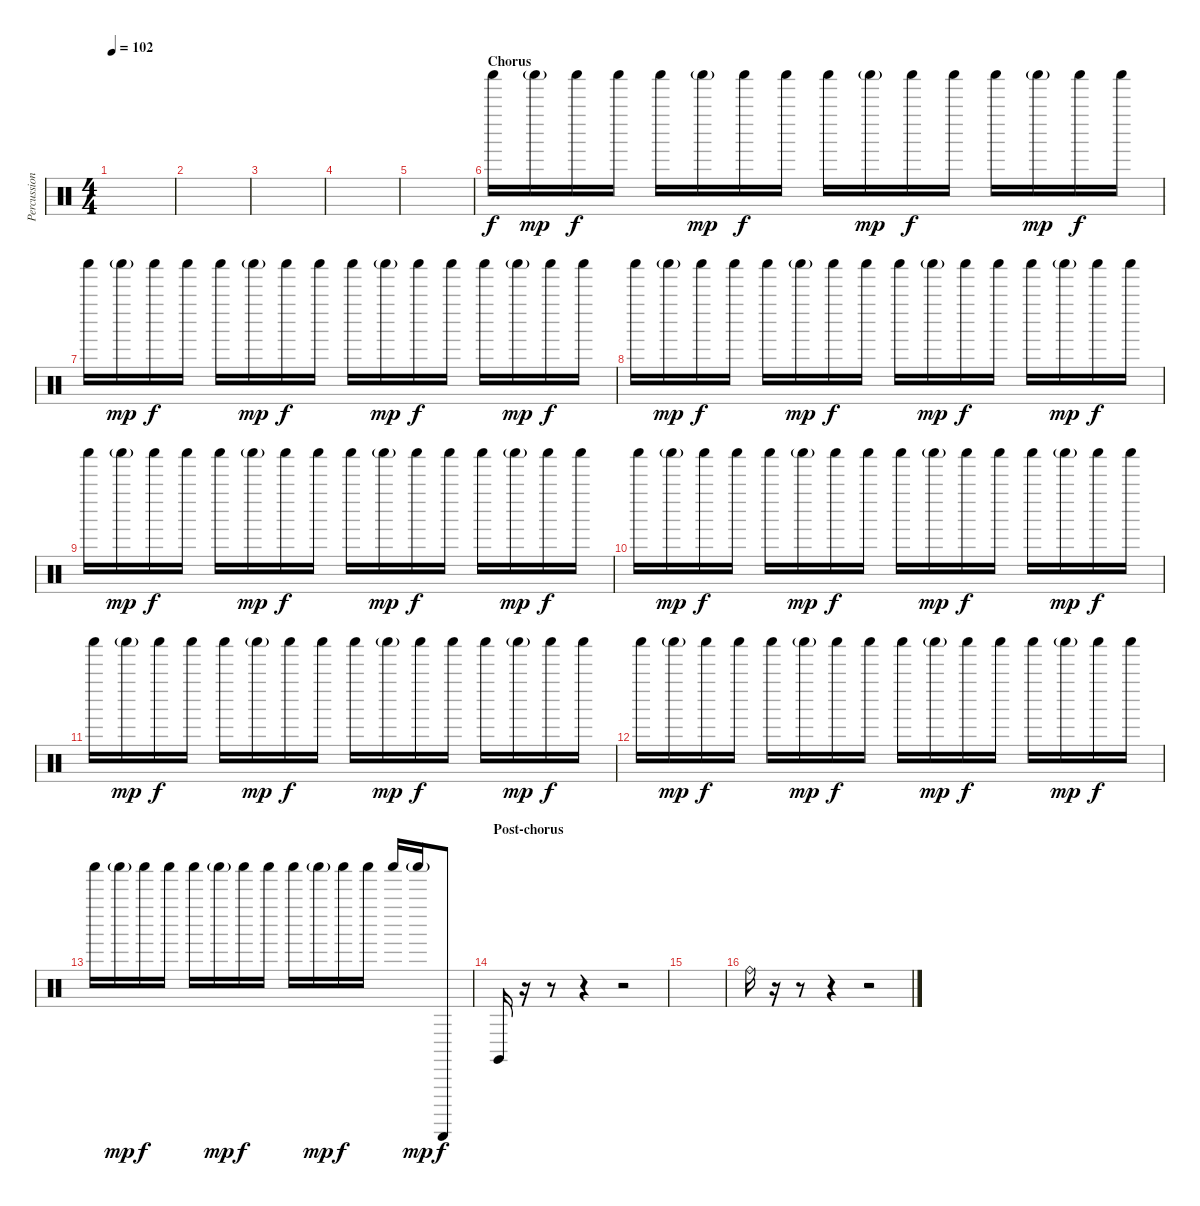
\track ("Percussion" "Percussion") {instrument percussion}
\staff {score}
\articulation defaults
\ts (4 4)
\tempo 102
\clef neutral
\ks c
|
|
|
|
|
\section ("" "Chorus")
"Shaker (hit)".16 "Shaker (hit)"{g}.16{dy mp} "Shaker (hit)".16{dy f} "Shaker (hit)".16 "Shaker (hit)".16 "Shaker (hit)"{g}.16{dy mp} "Shaker (hit)".16{dy f} "Shaker (hit)".16 "Shaker (hit)".16 "Shaker (hit)"{g}.16{dy mp} "Shaker (hit)".16{dy f} "Shaker (hit)".16 "Shaker (hit)".16 "Shaker (hit)"{g}.16{dy mp} "Shaker (hit)".16{dy f} "Shaker (hit)".16 |
"Shaker (hit)".16 "Shaker (hit)"{g}.16{dy mp} "Shaker (hit)".16{dy f} "Shaker (hit)".16 "Shaker (hit)".16 "Shaker (hit)"{g}.16{dy mp} "Shaker (hit)".16{dy f} "Shaker (hit)".16 "Shaker (hit)".16 "Shaker (hit)"{g}.16{dy mp} "Shaker (hit)".16{dy f} "Shaker (hit)".16 "Shaker (hit)".16 "Shaker (hit)"{g}.16{dy mp} "Shaker (hit)".16{dy f} "Shaker (hit)".16 |
"Shaker (hit)".16 "Shaker (hit)"{g}.16{dy mp} "Shaker (hit)".16{dy f} "Shaker (hit)".16 "Shaker (hit)".16 "Shaker (hit)"{g}.16{dy mp} "Shaker (hit)".16{dy f} "Shaker (hit)".16 "Shaker (hit)".16 "Shaker (hit)"{g}.16{dy mp} "Shaker (hit)".16{dy f} "Shaker (hit)".16 "Shaker (hit)".16 "Shaker (hit)"{g}.16{dy mp} "Shaker (hit)".16{dy f} "Shaker (hit)".16 |
"Shaker (hit)".16 "Shaker (hit)"{g}.16{dy mp} "Shaker (hit)".16{dy f} "Shaker (hit)".16 "Shaker (hit)".16 "Shaker (hit)"{g}.16{dy mp} "Shaker (hit)".16{dy f} "Shaker (hit)".16 "Shaker (hit)".16 "Shaker (hit)"{g}.16{dy mp} "Shaker (hit)".16{dy f} "Shaker (hit)".16 "Shaker (hit)".16 "Shaker (hit)"{g}.16{dy mp} "Shaker (hit)".16{dy f} "Shaker (hit)".16 |
"Shaker (hit)".16 "Shaker (hit)"{g}.16{dy mp} "Shaker (hit)".16{dy f} "Shaker (hit)".16 "Shaker (hit)".16 "Shaker (hit)"{g}.16{dy mp} "Shaker (hit)".16{dy f} "Shaker (hit)".16 "Shaker (hit)".16 "Shaker (hit)"{g}.16{dy mp} "Shaker (hit)".16{dy f} "Shaker (hit)".16 "Shaker (hit)".16 "Shaker (hit)"{g}.16{dy mp} "Shaker (hit)".16{dy f} "Shaker (hit)".16 |
"Shaker (hit)".16 "Shaker (hit)"{g}.16{dy mp} "Shaker (hit)".16{dy f} "Shaker (hit)".16 "Shaker (hit)".16 "Shaker (hit)"{g}.16{dy mp} "Shaker (hit)".16{dy f} "Shaker (hit)".16 "Shaker (hit)".16 "Shaker (hit)"{g}.16{dy mp} "Shaker (hit)".16{dy f} "Shaker (hit)".16 "Shaker (hit)".16 "Shaker (hit)"{g}.16{dy mp} "Shaker (hit)".16{dy f} "Shaker (hit)".16 |
"Shaker (hit)".16 "Shaker (hit)"{g}.16{dy mp} "Shaker (hit)".16{dy f} "Shaker (hit)".16 "Shaker (hit)".16 "Shaker (hit)"{g}.16{dy mp} "Shaker (hit)".16{dy f} "Shaker (hit)".16 "Shaker (hit)".16 "Shaker (hit)"{g}.16{dy mp} "Shaker (hit)".16{dy f} "Shaker (hit)".16 "Shaker (hit)".16 "Shaker (hit)"{g}.16{dy mp} "Shaker (hit)".16{dy f} "Shaker (hit)".16 |
"Shaker (hit)".16 "Shaker (hit)"{g}.16{dy mp} "Shaker (hit)".16{dy f} "Shaker (hit)".16 "Shaker (hit)".16 "Shaker (hit)"{g}.16{dy mp} "Shaker (hit)".16{dy f} "Shaker (hit)".16 "Shaker (hit)".16 "Shaker (hit)"{g}.16{dy mp} "Shaker (hit)".16{dy f} "Shaker (hit)".16 "Shaker (hit)".16 "Shaker (hit)"{g}.16{dy mp} "Guiro (scrap-return)".8{dy f} |
\section ("" "Post-chorus")
"Claves (hit)".16 r.16 r.8 r.4 r.2 |
|
"Ride (bell)".16 r.16 r.8 r.4 r.2
